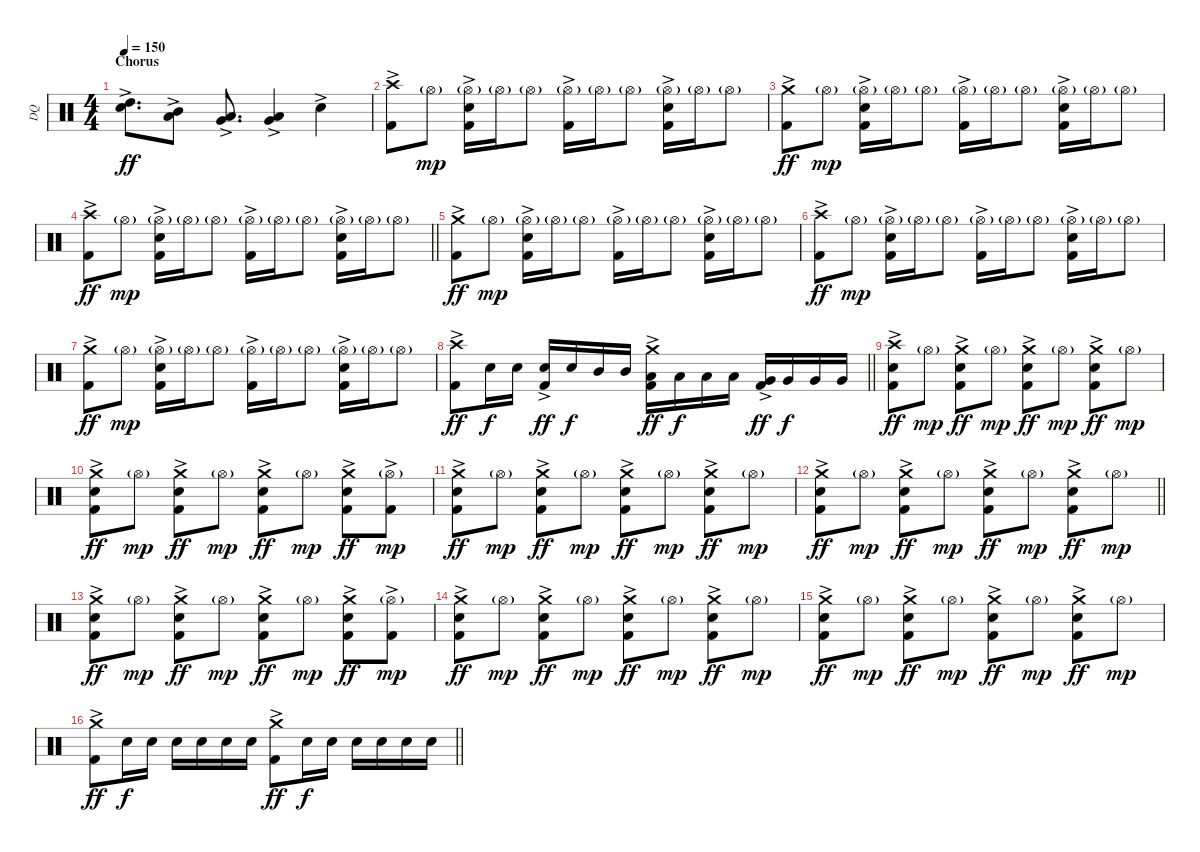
\track ("DQ" "DQ") {instrument percussion}
\staff {score}
\articulation defaults
\ts (4 4)
\section ("" "Chorus")
\tempo 150
\clef neutral
\ks c
("Snare (hit) 2"{ac} "High Tom (hit)"{ac}).8{d dy ff} ("Mid Tom (hit)"{ac} "Low Tom (hit)").8 ("Low Tom (hit)"{ac} "Very Low Tom (hit)").8{d} ("Very Low Tom (hit)"{ac} "Low Floor Tom (hit)").4 "Snare (hit) 2"{ac}.4 |
("Kick (hit) 2"{ac} "Crash high (hit)").8 "Hi-Hat (open)"{g}.8{dy mp} ("Kick (hit) 2"{ac} "Snare (hit) 2"{ac} "Hi-Hat (open)"{g}).16 "Hi-Hat (open)"{g}.16 "Hi-Hat (open)"{g}.8 ("Kick (hit) 2"{ac} "Hi-Hat (open)"{g}).16 "Hi-Hat (open)"{g}.16 "Hi-Hat (open)"{g}.8 ("Kick (hit) 2"{ac} "Snare (hit) 2"{ac} "Hi-Hat (open)"{g}).16 "Hi-Hat (open)"{g}.16 "Hi-Hat (open)"{g}.8 |
("Kick (hit) 2"{ac} "Crash medium (hit)").8{dy ff} "Hi-Hat (open)"{g}.8{dy mp} ("Kick (hit) 2"{ac} "Snare (hit) 2"{ac} "Hi-Hat (open)"{g}).16 "Hi-Hat (open)"{g}.16 "Hi-Hat (open)"{g}.8 ("Kick (hit) 2"{ac} "Hi-Hat (open)"{g}).16 "Hi-Hat (open)"{g}.16 "Hi-Hat (open)"{g}.8 ("Kick (hit) 2"{ac} "Snare (hit) 2"{ac} "Hi-Hat (open)"{g}).16 "Hi-Hat (open)"{g}.16 "Hi-Hat (open)"{g}.8 |
\barLineRight lightlight
("Kick (hit) 2"{ac} "Crash high (hit)").8{dy ff} "Hi-Hat (open)"{g}.8{dy mp} ("Kick (hit) 2"{ac} "Snare (hit) 2"{ac} "Hi-Hat (open)"{g}).16 "Hi-Hat (open)"{g}.16 "Hi-Hat (open)"{g}.8 ("Kick (hit) 2"{ac} "Hi-Hat (open)"{g}).16 "Hi-Hat (open)"{g}.16 "Hi-Hat (open)"{g}.8 ("Kick (hit) 2"{ac} "Snare (hit) 2"{ac} "Hi-Hat (open)"{g}).16 "Hi-Hat (open)"{g}.16 "Hi-Hat (open)"{g}.8 |
\section ("" "")
("Kick (hit) 2"{ac} "Crash medium (hit)").8{dy ff} "Hi-Hat (open)"{g}.8{dy mp} ("Kick (hit) 2"{ac} "Snare (hit) 2"{ac} "Hi-Hat (open)"{g}).16 "Hi-Hat (open)"{g}.16 "Hi-Hat (open)"{g}.8 ("Kick (hit) 2"{ac} "Hi-Hat (open)"{g}).16 "Hi-Hat (open)"{g}.16 "Hi-Hat (open)"{g}.8 ("Kick (hit) 2"{ac} "Snare (hit) 2"{ac} "Hi-Hat (open)"{g}).16 "Hi-Hat (open)"{g}.16 "Hi-Hat (open)"{g}.8 |
("Kick (hit) 2"{ac} "Crash high (hit)").8{dy ff} "Hi-Hat (open)"{g}.8{dy mp} ("Kick (hit) 2"{ac} "Snare (hit) 2"{ac} "Hi-Hat (open)"{g}).16 "Hi-Hat (open)"{g}.16 "Hi-Hat (open)"{g}.8 ("Kick (hit) 2"{ac} "Hi-Hat (open)"{g}).16 "Hi-Hat (open)"{g}.16 "Hi-Hat (open)"{g}.8 ("Kick (hit) 2"{ac} "Snare (hit) 2"{ac} "Hi-Hat (open)"{g}).16 "Hi-Hat (open)"{g}.16 "Hi-Hat (open)"{g}.8 |
("Kick (hit) 2"{ac} "Crash medium (hit)").8{dy ff} "Hi-Hat (open)"{g}.8{dy mp} ("Kick (hit) 2"{ac} "Snare (hit) 2"{ac} "Hi-Hat (open)"{g}).16 "Hi-Hat (open)"{g}.16 "Hi-Hat (open)"{g}.8 ("Kick (hit) 2"{ac} "Hi-Hat (open)"{g}).16 "Hi-Hat (open)"{g}.16 "Hi-Hat (open)"{g}.8 ("Kick (hit) 2"{ac} "Snare (hit) 2"{ac} "Hi-Hat (open)"{g}).16 "Hi-Hat (open)"{g}.16 "Hi-Hat (open)"{g}.8 |
\barLineRight lightlight
("Kick (hit) 2"{ac} "Crash high (hit)").8{dy ff} "Snare (hit) 2".16{dy f} "Snare (hit) 2".16 ("Kick (hit) 2"{ac} "Snare (hit) 2").16{dy ff} "Snare (hit) 2".16{dy f} "Mid Tom (hit)".16 "Mid Tom (hit)".16 ("Kick (hit) 2"{ac} "Low Tom (hit)" "Crash medium (hit)").16{dy ff} "Low Tom (hit)".16{dy f} "Low Tom (hit)".16 "Low Tom (hit)".16 ("Kick (hit) 2"{ac} "Very Low Tom (hit)").16{dy ff} "Very Low Tom (hit)".16{dy f} "Very Low Tom (hit)".16 "Very Low Tom (hit)".16 |
\section ("" "")
("Kick (hit) 2"{ac} "Snare (hit) 2"{ac} "Crash high (hit)").8{dy ff} "Hi-Hat (open)"{g}.8{dy mp} ("Kick (hit) 2"{ac} "Snare (hit) 2"{ac} "Crash medium (hit)").8{dy ff} "Hi-Hat (open)"{g}.8{dy mp} ("Kick (hit) 2"{ac} "Snare (hit) 2"{ac} "Crash medium (hit)").8{dy ff} "Hi-Hat (open)"{g}.8{dy mp} ("Kick (hit) 2"{ac} "Snare (hit) 2"{ac} "Crash medium (hit)").8{dy ff} "Hi-Hat (open)"{g}.8{dy mp} |
("Kick (hit) 2"{ac} "Snare (hit) 2"{ac} "Crash medium (hit)").8{dy ff} "Hi-Hat (open)"{g}.8{dy mp} ("Kick (hit) 2"{ac} "Snare (hit) 2"{ac} "Crash medium (hit)").8{dy ff} "Hi-Hat (open)"{g}.8{dy mp} ("Kick (hit) 2"{ac} "Snare (hit) 2"{ac} "Crash medium (hit)").8{dy ff} "Hi-Hat (open)"{g}.8{dy mp} ("Kick (hit) 2"{ac} "Snare (hit) 2"{ac} "Crash medium (hit)").8{dy ff} ("Kick (hit) 2"{ac} "Hi-Hat (open)"{g}).8{dy mp} |
("Kick (hit) 2"{ac} "Snare (hit) 2"{ac} "Crash medium (hit)").8{dy ff} "Hi-Hat (open)"{g}.8{dy mp} ("Kick (hit) 2"{ac} "Snare (hit) 2"{ac} "Crash medium (hit)").8{dy ff} "Hi-Hat (open)"{g}.8{dy mp} ("Kick (hit) 2"{ac} "Snare (hit) 2"{ac} "Crash medium (hit)").8{dy ff} "Hi-Hat (open)"{g}.8{dy mp} ("Kick (hit) 2"{ac} "Snare (hit) 2"{ac} "Crash medium (hit)").8{dy ff} "Hi-Hat (open)"{g}.8{dy mp} |
\barLineRight lightlight
("Kick (hit) 2"{ac} "Snare (hit) 2"{ac} "Crash medium (hit)").8{dy ff} "Hi-Hat (open)"{g}.8{dy mp} ("Kick (hit) 2"{ac} "Snare (hit) 2"{ac} "Crash medium (hit)").8{dy ff} "Hi-Hat (open)"{g}.8{dy mp} ("Kick (hit) 2"{ac} "Snare (hit) 2"{ac} "Crash medium (hit)").8{dy ff} "Hi-Hat (open)"{g}.8{dy mp} ("Kick (hit) 2"{ac} "Snare (hit) 2"{ac} "Crash medium (hit)").8{dy ff} "Hi-Hat (open)"{g}.8{dy mp} |
\section ("" "")
("Kick (hit) 2"{ac} "Snare (hit) 2"{ac} "Crash medium (hit)").8{dy ff} "Hi-Hat (open)"{g}.8{dy mp} ("Kick (hit) 2"{ac} "Snare (hit) 2"{ac} "Crash medium (hit)").8{dy ff} "Hi-Hat (open)"{g}.8{dy mp} ("Kick (hit) 2"{ac} "Snare (hit) 2"{ac} "Crash medium (hit)").8{dy ff} "Hi-Hat (open)"{g}.8{dy mp} ("Kick (hit) 2"{ac} "Snare (hit) 2"{ac} "Crash medium (hit)").8{dy ff} ("Kick (hit) 2"{ac} "Hi-Hat (open)"{g}).8{dy mp} |
("Kick (hit) 2"{ac} "Snare (hit) 2"{ac} "Crash medium (hit)").8{dy ff} "Hi-Hat (open)"{g}.8{dy mp} ("Kick (hit) 2"{ac} "Snare (hit) 2"{ac} "Crash medium (hit)").8{dy ff} "Hi-Hat (open)"{g}.8{dy mp} ("Kick (hit) 2"{ac} "Snare (hit) 2"{ac} "Crash medium (hit)").8{dy ff} "Hi-Hat (open)"{g}.8{dy mp} ("Kick (hit) 2"{ac} "Snare (hit) 2"{ac} "Crash medium (hit)").8{dy ff} "Hi-Hat (open)"{g}.8{dy mp} |
("Kick (hit) 2"{ac} "Snare (hit) 2"{ac} "Crash medium (hit)").8{dy ff} "Hi-Hat (open)"{g}.8{dy mp} ("Kick (hit) 2"{ac} "Snare (hit) 2"{ac} "Crash medium (hit)").8{dy ff} "Hi-Hat (open)"{g}.8{dy mp} ("Kick (hit) 2"{ac} "Snare (hit) 2"{ac} "Crash medium (hit)").8{dy ff} "Hi-Hat (open)"{g}.8{dy mp} ("Kick (hit) 2"{ac} "Snare (hit) 2"{ac} "Crash medium (hit)").8{dy ff} "Hi-Hat (open)"{g}.8{dy mp} |
\barLineRight lightlight
("Kick (hit) 2"{ac} "Crash medium (hit)").8{dy ff} "Snare (hit) 2".16{dy f} "Snare (hit) 2".16 "Snare (hit) 2".16 "Snare (hit) 2".16 "Snare (hit) 2".16 "Snare (hit) 2".16 ("Kick (hit) 2"{ac} "Crash medium (hit)").8{dy ff} "Snare (hit) 2".16{dy f} "Snare (hit) 2".16 "Snare (hit) 2".16 "Snare (hit) 2".16 "Snare (hit) 2".16 "Snare (hit) 2".16
